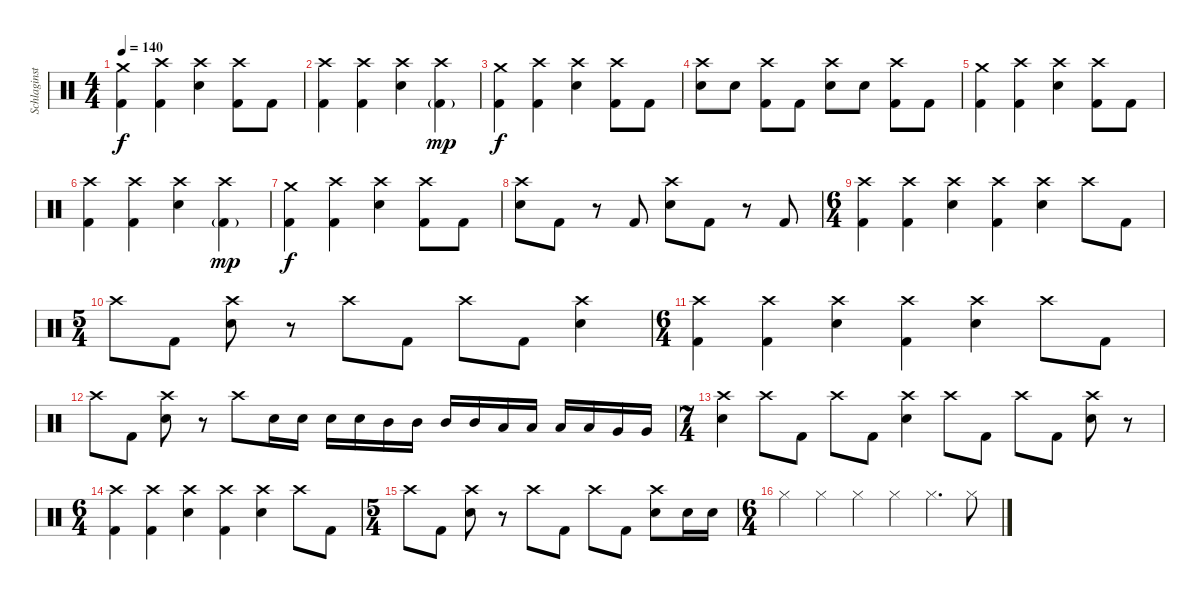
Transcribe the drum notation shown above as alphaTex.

\track ("Schlaginstrumente - Auswahl" "Schlaginst") {instrument percussion}
\staff {score}
\articulation defaults
\ts (4 4)
\tempo 140
\clef neutral
\ks c
("Crash medium (hit)" "Kick (hit) 2").4{dy f} ("Crash high (hit)" "Kick (hit) 2").4 ("Crash high (hit)" "Electric Snare (hit)").4 ("Crash high (hit)" "Kick (hit) 2").8 "Kick (hit) 2".8 |
("Crash high (hit)" "Kick (hit) 2").4 ("Crash high (hit)" "Kick (hit) 2").4 ("Crash high (hit)" "Electric Snare (hit)").4 ("Crash high (hit)" "Kick (hit) 2"{g}).4{dy mp} |
("Crash medium (hit)" "Kick (hit) 2").4{dy f} ("Crash high (hit)" "Kick (hit) 2").4 ("Crash high (hit)" "Electric Snare (hit)").4 ("Crash high (hit)" "Kick (hit) 2").8 "Kick (hit) 2".8 |
("Crash high (hit)" "Electric Snare (hit)").8 "Electric Snare (hit)".8 ("Crash high (hit)" "Kick (hit) 2").8 "Kick (hit) 2".8 ("Crash high (hit)" "Electric Snare (hit)").8 "Electric Snare (hit)".8 ("Crash high (hit)" "Kick (hit) 2").8 "Kick (hit) 2".8 |
("Crash medium (hit)" "Kick (hit) 2").4 ("Crash high (hit)" "Kick (hit) 2").4 ("Crash high (hit)" "Electric Snare (hit)").4 ("Crash high (hit)" "Kick (hit) 2").8 "Kick (hit) 2".8 |
("Crash high (hit)" "Kick (hit) 2").4 ("Crash high (hit)" "Kick (hit) 2").4 ("Crash high (hit)" "Electric Snare (hit)").4 ("Crash high (hit)" "Kick (hit) 2"{g}).4{dy mp} |
("Crash medium (hit)" "Kick (hit) 2").4{dy f} ("Crash high (hit)" "Kick (hit) 2").4 ("Crash high (hit)" "Electric Snare (hit)").4 ("Crash high (hit)" "Kick (hit) 2").8 "Kick (hit) 2".8 |
("Crash high (hit)" "Electric Snare (hit)").8 "Kick (hit) 2".8 r.8 "Kick (hit) 2".8 ("Crash high (hit)" "Electric Snare (hit)").8 "Kick (hit) 2".8 r.8 "Kick (hit) 2".8 |
\ts (6 4)
("Crash high (hit)" "Kick (hit) 2").4 ("Crash high (hit)" "Kick (hit) 2").4 ("Crash high (hit)" "Electric Snare (hit)").4 ("Crash high (hit)" "Kick (hit) 2").4 ("Crash high (hit)" "Electric Snare (hit)").4 "Crash high (hit)".8 "Kick (hit) 2".8 |
\ts (5 4)
"Crash high (hit)".8 "Kick (hit) 2".8 ("Crash high (hit)" "Electric Snare (hit)").8 r.8 "Crash high (hit)".8 "Kick (hit) 2".8 "Crash high (hit)".8 "Kick (hit) 2".8 ("Crash high (hit)" "Electric Snare (hit)").4 |
\ts (6 4)
("Crash high (hit)" "Kick (hit) 2").4 ("Crash high (hit)" "Kick (hit) 2").4 ("Crash high (hit)" "Electric Snare (hit)").4 ("Crash high (hit)" "Kick (hit) 2").4 ("Crash high (hit)" "Electric Snare (hit)").4 "Crash high (hit)".8 "Kick (hit) 2".8 |
"Crash high (hit)".8 "Kick (hit) 2".8 ("Crash high (hit)" "Electric Snare (hit)").8 r.8 "Crash high (hit)".8 "Electric Snare (hit)".16 "Electric Snare (hit)".16 "Electric Snare (hit)".16 "Electric Snare (hit)".16 "Mid Tom (hit)".16 "Mid Tom (hit)".16 "Mid Tom (hit)".16 "Mid Tom (hit)".16 "Low Tom (hit)".16 "Low Tom (hit)".16 "Low Tom (hit)".16 "Low Tom (hit)".16 "Very Low Tom (hit)".16 "Very Low Tom (hit)".16 |
\ts (7 4)
("Crash high (hit)" "Electric Snare (hit)").4 "Crash high (hit)".8 "Kick (hit) 2".8 "Crash high (hit)".8 "Kick (hit) 2".8 ("Crash high (hit)" "Electric Snare (hit)").4 "Crash high (hit)".8 "Kick (hit) 2".8 "Crash high (hit)".8 "Kick (hit) 2".8 ("Crash high (hit)" "Electric Snare (hit)").8 r.8 |
\ts (6 4)
("Crash high (hit)" "Kick (hit) 2").4 ("Crash high (hit)" "Kick (hit) 2").4 ("Crash high (hit)" "Electric Snare (hit)").4 ("Crash high (hit)" "Kick (hit) 2").4 ("Crash high (hit)" "Electric Snare (hit)").4 "Crash high (hit)".8 "Kick (hit) 2".8 |
\ts (5 4)
"Crash high (hit)".8 "Kick (hit) 2".8 ("Crash high (hit)" "Electric Snare (hit)").8 r.8 "Crash high (hit)".8 "Kick (hit) 2".8 "Crash high (hit)".8 "Kick (hit) 2".8 ("Crash high (hit)" "Electric Snare (hit)").8 "Electric Snare (hit)".16 "Electric Snare (hit)".16 |
\ts (6 4)
"Hi-Hat (closed)".4 "Hi-Hat (closed)".4 "Hi-Hat (closed)".4 "Hi-Hat (closed)".4 "Hi-Hat (closed)".4{d} "Hi-Hat (closed)".8
